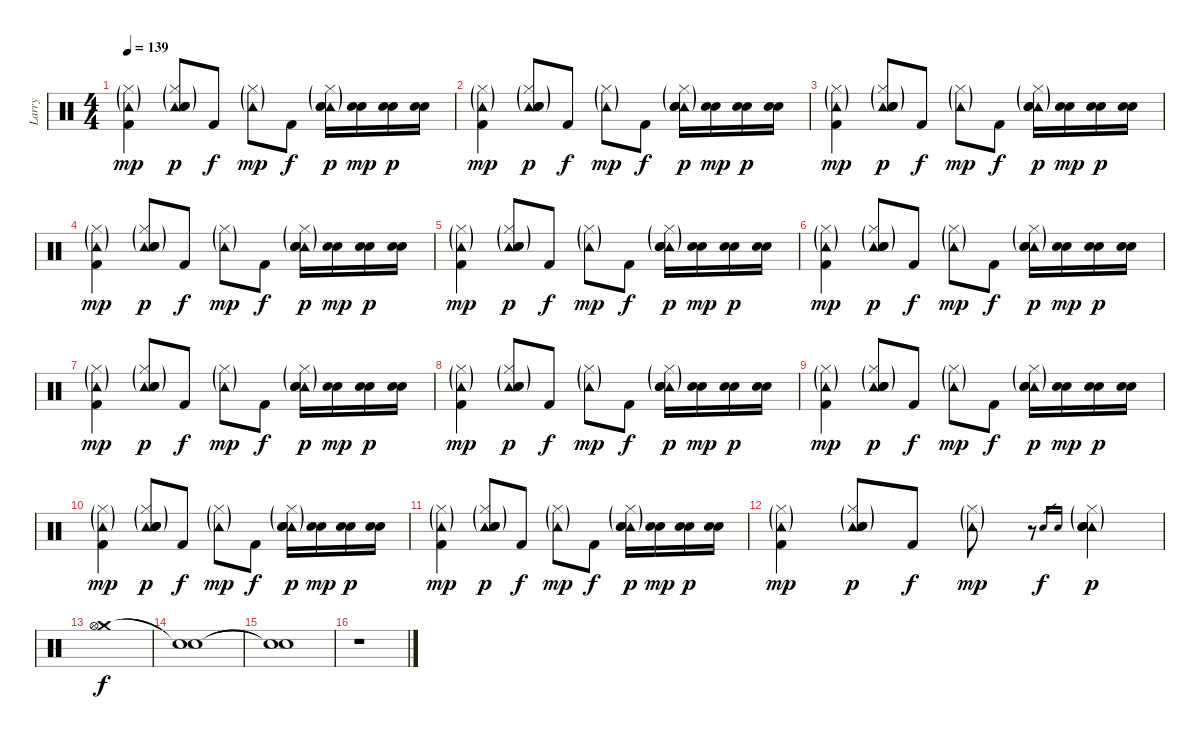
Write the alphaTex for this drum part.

\track ("Larry" "Larry") {instrument percussion}
\staff {score}
\articulation defaults
\ts (4 4)
\tempo 139
\clef neutral
\ks c
("Tambourine (hit)"{g} "Kick (hit) 2" "Hi-Hat (closed)"{g}).4{dy mp} ("Tambourine (hit)"{g} "Snare (hit) 2" "Electric Snare (hit)" "Hi-Hat (closed)"{g}).8{dy p} "Kick (hit) 2".8{dy f} ("Tambourine (hit)"{g} "Hi-Hat (closed)"{g}).8{dy mp} "Kick (hit) 2".8{dy f} ("Tambourine (hit)"{g} "Snare (hit) 2" "Electric Snare (hit)" "Hi-Hat (closed)"{g}).16{dy p} ("Snare (hit) 2" "Electric Snare (hit)").16{dy mp} ("Snare (hit) 2" "Electric Snare (hit)").16{dy p} ("Snare (hit) 2" "Electric Snare (hit)").16 |
("Tambourine (hit)"{g} "Kick (hit) 2" "Hi-Hat (closed)"{g}).4{dy mp} ("Tambourine (hit)"{g} "Snare (hit) 2" "Electric Snare (hit)" "Hi-Hat (closed)"{g}).8{dy p} "Kick (hit) 2".8{dy f} ("Tambourine (hit)"{g} "Hi-Hat (closed)"{g}).8{dy mp} "Kick (hit) 2".8{dy f} ("Tambourine (hit)"{g} "Snare (hit) 2" "Electric Snare (hit)" "Hi-Hat (closed)"{g}).16{dy p} ("Snare (hit) 2" "Electric Snare (hit)").16{dy mp} ("Snare (hit) 2" "Electric Snare (hit)").16{dy p} ("Snare (hit) 2" "Electric Snare (hit)").16 |
("Tambourine (hit)"{g} "Kick (hit) 2" "Hi-Hat (closed)"{g}).4{dy mp} ("Tambourine (hit)"{g} "Snare (hit) 2" "Electric Snare (hit)" "Hi-Hat (closed)"{g}).8{dy p} "Kick (hit) 2".8{dy f} ("Tambourine (hit)"{g} "Hi-Hat (closed)"{g}).8{dy mp} "Kick (hit) 2".8{dy f} ("Tambourine (hit)"{g} "Snare (hit) 2" "Electric Snare (hit)" "Hi-Hat (closed)"{g}).16{dy p} ("Snare (hit) 2" "Electric Snare (hit)").16{dy mp} ("Snare (hit) 2" "Electric Snare (hit)").16{dy p} ("Snare (hit) 2" "Electric Snare (hit)").16 |
("Tambourine (hit)"{g} "Kick (hit) 2" "Hi-Hat (closed)"{g}).4{dy mp} ("Tambourine (hit)"{g} "Snare (hit) 2" "Electric Snare (hit)" "Hi-Hat (closed)"{g}).8{dy p} "Kick (hit) 2".8{dy f} ("Tambourine (hit)"{g} "Hi-Hat (closed)"{g}).8{dy mp} "Kick (hit) 2".8{dy f} ("Tambourine (hit)"{g} "Snare (hit) 2" "Electric Snare (hit)" "Hi-Hat (closed)"{g}).16{dy p} ("Snare (hit) 2" "Electric Snare (hit)").16{dy mp} ("Snare (hit) 2" "Electric Snare (hit)").16{dy p} ("Snare (hit) 2" "Electric Snare (hit)").16 |
("Tambourine (hit)"{g} "Kick (hit) 2" "Hi-Hat (closed)"{g}).4{dy mp} ("Tambourine (hit)"{g} "Snare (hit) 2" "Electric Snare (hit)" "Hi-Hat (closed)"{g}).8{dy p} "Kick (hit) 2".8{dy f} ("Tambourine (hit)"{g} "Hi-Hat (closed)"{g}).8{dy mp} "Kick (hit) 2".8{dy f} ("Tambourine (hit)"{g} "Snare (hit) 2" "Electric Snare (hit)" "Hi-Hat (closed)"{g}).16{dy p} ("Snare (hit) 2" "Electric Snare (hit)").16{dy mp} ("Snare (hit) 2" "Electric Snare (hit)").16{dy p} ("Snare (hit) 2" "Electric Snare (hit)").16 |
("Tambourine (hit)"{g} "Kick (hit) 2" "Hi-Hat (closed)"{g}).4{dy mp} ("Tambourine (hit)"{g} "Snare (hit) 2" "Electric Snare (hit)" "Hi-Hat (closed)"{g}).8{dy p} "Kick (hit) 2".8{dy f} ("Tambourine (hit)"{g} "Hi-Hat (closed)"{g}).8{dy mp} "Kick (hit) 2".8{dy f} ("Tambourine (hit)"{g} "Snare (hit) 2" "Electric Snare (hit)" "Hi-Hat (closed)"{g}).16{dy p} ("Snare (hit) 2" "Electric Snare (hit)").16{dy mp} ("Snare (hit) 2" "Electric Snare (hit)").16{dy p} ("Snare (hit) 2" "Electric Snare (hit)").16 |
("Tambourine (hit)"{g} "Kick (hit) 2" "Hi-Hat (closed)"{g}).4{dy mp} ("Tambourine (hit)"{g} "Snare (hit) 2" "Electric Snare (hit)" "Hi-Hat (closed)"{g}).8{dy p} "Kick (hit) 2".8{dy f} ("Tambourine (hit)"{g} "Hi-Hat (closed)"{g}).8{dy mp} "Kick (hit) 2".8{dy f} ("Tambourine (hit)"{g} "Snare (hit) 2" "Electric Snare (hit)" "Hi-Hat (closed)"{g}).16{dy p} ("Snare (hit) 2" "Electric Snare (hit)").16{dy mp} ("Snare (hit) 2" "Electric Snare (hit)").16{dy p} ("Snare (hit) 2" "Electric Snare (hit)").16 |
("Tambourine (hit)"{g} "Kick (hit) 2" "Hi-Hat (closed)"{g}).4{dy mp} ("Tambourine (hit)"{g} "Snare (hit) 2" "Electric Snare (hit)" "Hi-Hat (closed)"{g}).8{dy p} "Kick (hit) 2".8{dy f} ("Tambourine (hit)"{g} "Hi-Hat (closed)"{g}).8{dy mp} "Kick (hit) 2".8{dy f} ("Tambourine (hit)"{g} "Snare (hit) 2" "Electric Snare (hit)" "Hi-Hat (closed)"{g}).16{dy p} ("Snare (hit) 2" "Electric Snare (hit)").16{dy mp} ("Snare (hit) 2" "Electric Snare (hit)").16{dy p} ("Snare (hit) 2" "Electric Snare (hit)").16 |
("Tambourine (hit)"{g} "Kick (hit) 2" "Hi-Hat (closed)"{g}).4{dy mp} ("Tambourine (hit)"{g} "Snare (hit) 2" "Electric Snare (hit)" "Hi-Hat (closed)"{g}).8{dy p} "Kick (hit) 2".8{dy f} ("Tambourine (hit)"{g} "Hi-Hat (closed)"{g}).8{dy mp} "Kick (hit) 2".8{dy f} ("Tambourine (hit)"{g} "Snare (hit) 2" "Electric Snare (hit)" "Hi-Hat (closed)"{g}).16{dy p} ("Snare (hit) 2" "Electric Snare (hit)").16{dy mp} ("Snare (hit) 2" "Electric Snare (hit)").16{dy p} ("Snare (hit) 2" "Electric Snare (hit)").16 |
("Tambourine (hit)"{g} "Kick (hit) 2" "Hi-Hat (closed)"{g}).4{dy mp} ("Tambourine (hit)"{g} "Snare (hit) 2" "Electric Snare (hit)" "Hi-Hat (closed)"{g}).8{dy p} "Kick (hit) 2".8{dy f} ("Tambourine (hit)"{g} "Hi-Hat (closed)"{g}).8{dy mp} "Kick (hit) 2".8{dy f} ("Tambourine (hit)"{g} "Snare (hit) 2" "Electric Snare (hit)" "Hi-Hat (closed)"{g}).16{dy p} ("Snare (hit) 2" "Electric Snare (hit)").16{dy mp} ("Snare (hit) 2" "Electric Snare (hit)").16{dy p} ("Snare (hit) 2" "Electric Snare (hit)").16 |
("Tambourine (hit)"{g} "Kick (hit) 2" "Hi-Hat (closed)"{g}).4{dy mp} ("Tambourine (hit)"{g} "Snare (hit) 2" "Electric Snare (hit)" "Hi-Hat (closed)"{g}).8{dy p} "Kick (hit) 2".8{dy f} ("Tambourine (hit)"{g} "Hi-Hat (closed)"{g}).8{dy mp} "Kick (hit) 2".8{dy f} ("Tambourine (hit)"{g} "Snare (hit) 2" "Electric Snare (hit)" "Hi-Hat (closed)"{g}).16{dy p} ("Snare (hit) 2" "Electric Snare (hit)").16{dy mp} ("Snare (hit) 2" "Electric Snare (hit)").16{dy p} ("Snare (hit) 2" "Electric Snare (hit)").16 |
("Tambourine (hit)"{g} "Kick (hit) 2" "Hi-Hat (closed)"{g}).4{dy mp} ("Tambourine (hit)"{g} "Snare (hit) 2" "Electric Snare (hit)" "Hi-Hat (closed)"{g}).8{dy p} "Kick (hit) 2".8{dy f} ("Tambourine (hit)"{g} "Hi-Hat (closed)"{g}).8{dy mp} r.8 "Snare (hit) 2".16{gr dy f} "Electric Snare (hit)".16{gr} ("Tambourine (hit)"{g} "Snare (hit) 2" "Electric Snare (hit)" "Hi-Hat (closed)"{g}).4{dy p} |
("Crash medium (hit)" "Hi-Hat (open)").1{dy f} |
("Snare (hit)"{t} "Snare (hit)"{t}).1 |
("Snare (hit)"{t} "Snare (hit)"{t}).1 |
r.1
